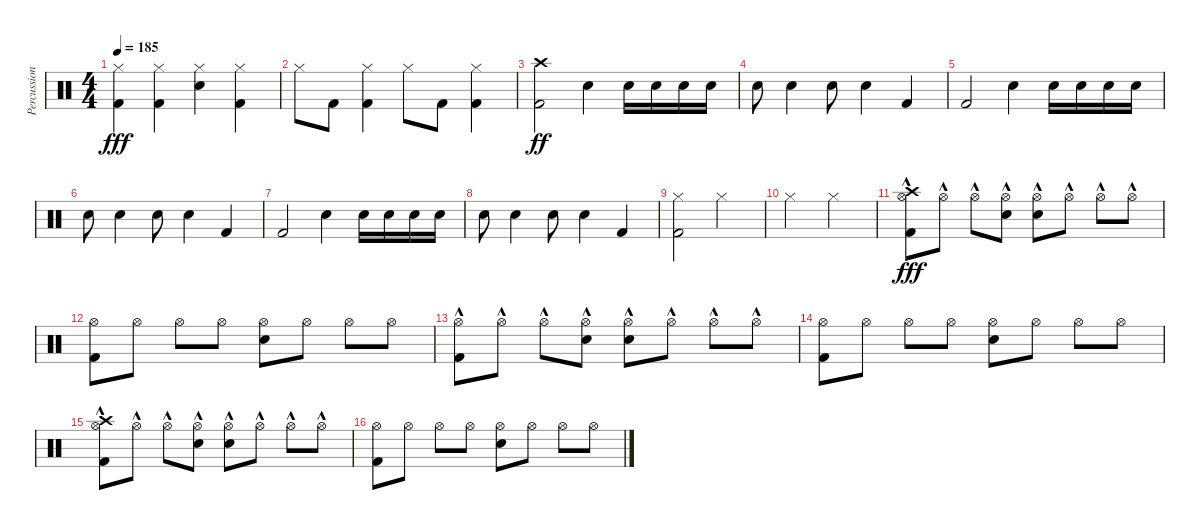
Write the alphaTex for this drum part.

\track ("Percussion" "Percussion") {instrument percussion}
\staff {score}
\articulation defaults
\ts (4 4)
\tempo 185
\clef neutral
\ks c
("Hi-Hat (closed)" "Kick (hit) 2").4{dy fff} ("Hi-Hat (closed)" "Kick (hit) 2").4 ("Hi-Hat (closed)" "Electric Snare (hit)").4 ("Hi-Hat (closed)" "Kick (hit) 2").4 |
"Hi-Hat (closed)".8 "Kick (hit) 2".8 ("Hi-Hat (closed)" "Kick (hit) 2").4 "Hi-Hat (closed)".8 "Kick (hit) 2".8 ("Hi-Hat (closed)" "Kick (hit) 2").4 |
("Kick (hit) 2" "Crash high (hit)").2{bd 480 dy ff} "Electric Snare (hit)".4 "Electric Snare (hit)".16 "Electric Snare (hit)".16 "Electric Snare (hit)".16 "Electric Snare (hit)".16 |
"Electric Snare (hit)".8 "Electric Snare (hit)".4 "Electric Snare (hit)".8 "Electric Snare (hit)".4 "Kick (hit) 2".4 |
"Kick (hit) 2".2 "Electric Snare (hit)".4 "Electric Snare (hit)".16 "Electric Snare (hit)".16 "Electric Snare (hit)".16 "Electric Snare (hit)".16 |
"Electric Snare (hit)".8 "Electric Snare (hit)".4 "Electric Snare (hit)".8 "Electric Snare (hit)".4 "Kick (hit) 2".4 |
"Kick (hit) 2".2 "Electric Snare (hit)".4 "Electric Snare (hit)".16 "Electric Snare (hit)".16 "Electric Snare (hit)".16 "Electric Snare (hit)".16 |
"Electric Snare (hit)".8 "Electric Snare (hit)".4 "Electric Snare (hit)".8 "Electric Snare (hit)".4 "Kick (hit) 2".4 |
("Hi-Hat (closed)" "Kick (hit) 2").2 "Hi-Hat (closed)".2 |
"Hi-Hat (closed)".2 "Hi-Hat (closed)".2 |
("Crash high (hit)" "Kick (hit) 2" "Hi-Hat (open)"{hac}).8{dy fff} "Hi-Hat (open)"{hac}.8 "Hi-Hat (open)"{hac}.8 ("Electric Snare (hit)" "Hi-Hat (open)"{hac}).8 ("Electric Snare (hit)" "Hi-Hat (open)"{hac}).8 "Hi-Hat (open)"{hac}.8 "Hi-Hat (open)"{hac}.8 "Hi-Hat (open)"{hac}.8 |
("Kick (hit) 2" "Hi-Hat (open)").8 "Hi-Hat (open)".8 "Hi-Hat (open)".8 "Hi-Hat (open)".8 ("Electric Snare (hit)" "Hi-Hat (open)").8 "Hi-Hat (open)".8 "Hi-Hat (open)".8 "Hi-Hat (open)".8 |
("Kick (hit) 2" "Hi-Hat (open)"{hac}).8 "Hi-Hat (open)"{hac}.8 "Hi-Hat (open)"{hac}.8 ("Electric Snare (hit)" "Hi-Hat (open)"{hac}).8 ("Electric Snare (hit)" "Hi-Hat (open)"{hac}).8 "Hi-Hat (open)"{hac}.8 "Hi-Hat (open)"{hac}.8 "Hi-Hat (open)"{hac}.8 |
("Kick (hit) 2" "Hi-Hat (open)").8 "Hi-Hat (open)".8 "Hi-Hat (open)".8 "Hi-Hat (open)".8 ("Electric Snare (hit)" "Hi-Hat (open)").8 "Hi-Hat (open)".8 "Hi-Hat (open)".8 "Hi-Hat (open)".8 |
("Crash high (hit)" "Kick (hit) 2" "Hi-Hat (open)"{hac}).8 "Hi-Hat (open)"{hac}.8 "Hi-Hat (open)"{hac}.8 ("Electric Snare (hit)" "Hi-Hat (open)"{hac}).8 ("Electric Snare (hit)" "Hi-Hat (open)"{hac}).8 "Hi-Hat (open)"{hac}.8 "Hi-Hat (open)"{hac}.8 "Hi-Hat (open)"{hac}.8 |
("Kick (hit) 2" "Hi-Hat (open)").8 "Hi-Hat (open)".8 "Hi-Hat (open)".8 "Hi-Hat (open)".8 ("Electric Snare (hit)" "Hi-Hat (open)").8 "Hi-Hat (open)".8 "Hi-Hat (open)".8 "Hi-Hat (open)".8
